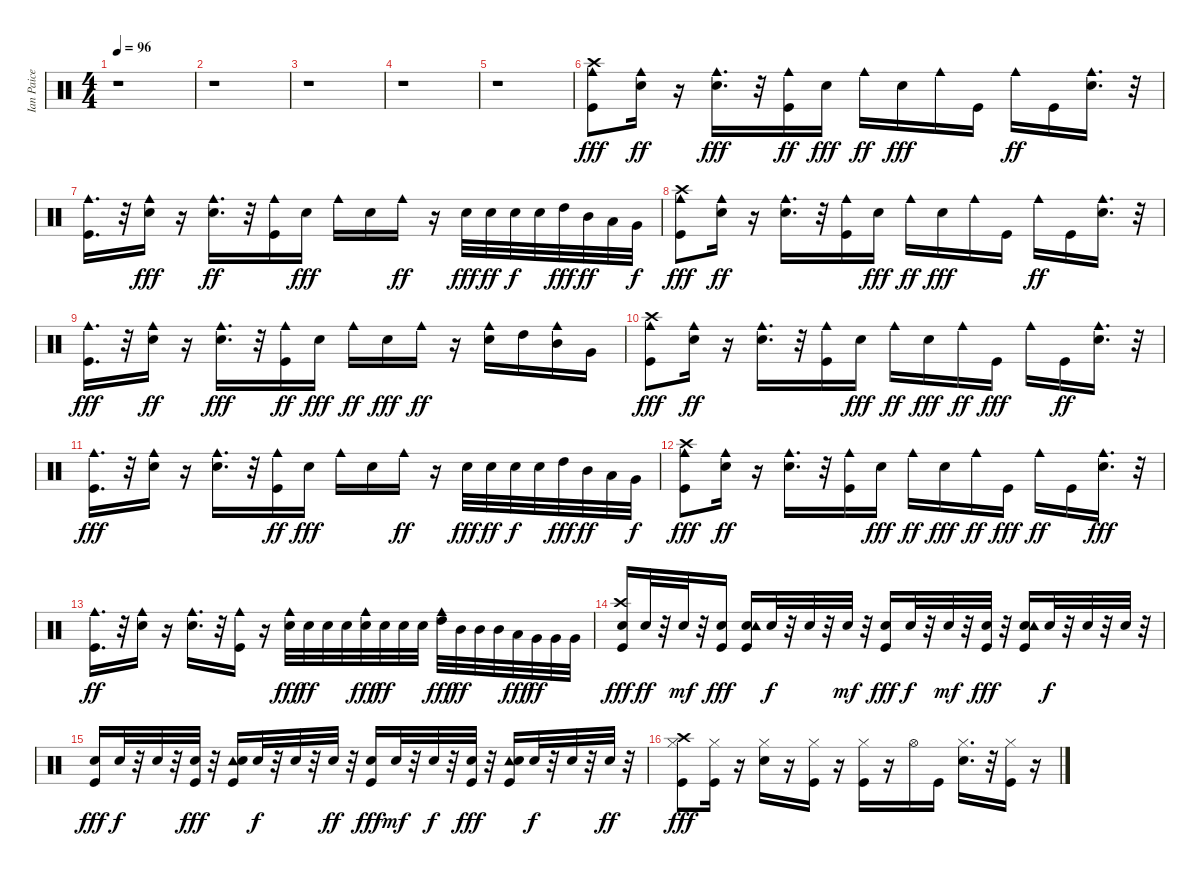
\track ("Ian Paice" "Ian Paice") {instrument percussion}
\staff {score}
\articulation defaults
\ts (4 4)
\tempo 96
\clef neutral
\ks c
r.1{dy fff} |
r.1 |
r.1 |
r.1 |
r.1 |
("Cowbell medium (hit)" "Kick (hit)" "Crash high (hit)").8 ("Snare (hit) 2" "Cowbell medium (hit)").16{dy ff} r.16 ("Cowbell medium (hit)" "Snare (hit) 2").16{d dy fff} r.32 ("Kick (hit)" "Cowbell medium (hit)").16{dy ff} "Snare (hit) 2".16{dy fff} "Cowbell medium (hit)".16{dy ff} "Snare (hit) 2".16{dy fff} "Cowbell medium (hit)".16 "Kick (hit)".16 "Cowbell medium (hit)".16{dy ff} "Kick (hit)".16 ("Snare (hit) 2" "Cowbell medium (hit)").16{d} r.32 |
("Kick (hit)" "Cowbell medium (hit)").16{d} r.32 ("Snare (hit) 2" "Cowbell medium (hit)").16{dy fff} r.16 ("Snare (hit) 2" "Cowbell medium (hit)").16{d dy ff} r.32 ("Kick (hit)" "Cowbell medium (hit)").16 "Snare (hit) 2".16{dy fff} "Cowbell medium (hit)".16 "Snare (hit) 2".16 "Cowbell medium (hit)".16{dy ff} r.16 "Snare (hit) 2".32{dy fff} "Snare (hit) 2".32{dy ff} "Snare (hit) 2".32{dy f} "Snare (hit) 2".32 "High Tom (hit)".32{dy fff} "Mid Tom (hit)".32{dy ff} "Low Tom (hit)".32 "Very Low Tom (hit)".32{dy f} |
("Cowbell medium (hit)" "Kick (hit)" "Crash high (hit)").8{dy fff} ("Snare (hit) 2" "Cowbell medium (hit)").16{dy ff} r.16 ("Snare (hit) 2" "Cowbell medium (hit)").16{d} r.32 ("Kick (hit)" "Cowbell medium (hit)").16 "Snare (hit) 2".16{dy fff} "Cowbell medium (hit)".16{dy ff} "Snare (hit) 2".16{dy fff} "Cowbell medium (hit)".16 "Kick (hit)".16 "Cowbell medium (hit)".16{dy ff} "Kick (hit)".16 ("Snare (hit) 2" "Cowbell medium (hit)").16{d} r.32 |
("Kick (hit)" "Cowbell medium (hit)").16{d dy fff} r.32 ("Snare (hit) 2" "Cowbell medium (hit)").16{dy ff} r.16 ("Snare (hit) 2" "Cowbell medium (hit)").16{d dy fff} r.32 ("Kick (hit)" "Cowbell medium (hit)").16{dy ff} "Snare (hit) 2".16{dy fff} "Cowbell medium (hit)".16{dy ff} "Snare (hit) 2".16{dy fff} "Cowbell medium (hit)".16{dy ff} r.16 ("Cowbell medium (hit)" "Snare (hit) 2").16 "High Tom (hit)".16 ("Cowbell medium (hit)" "Mid Tom (hit)").16 "Very Low Tom (hit)".16 |
("Cowbell medium (hit)" "Kick (hit)" "Crash high (hit)").8{dy fff} ("Snare (hit) 2" "Cowbell medium (hit)").16{dy ff} r.16 ("Snare (hit) 2" "Cowbell medium (hit)").16{d} r.32 ("Kick (hit)" "Cowbell medium (hit)").16 "Snare (hit) 2".16{dy fff} "Cowbell medium (hit)".16{dy ff} "Snare (hit) 2".16{dy fff} "Cowbell medium (hit)".16{dy ff} "Kick (hit)".16{dy fff} "Cowbell medium (hit)".16 "Kick (hit)".16{dy ff} ("Snare (hit) 2" "Cowbell medium (hit)").16{d} r.32 |
("Cowbell medium (hit)" "Kick (hit)").16{d dy fff} r.32 ("Snare (hit) 2" "Cowbell medium (hit)").16 r.16 ("Cowbell medium (hit)" "Snare (hit) 2").16{d} r.32 ("Kick (hit)" "Cowbell medium (hit)").16{dy ff} "Snare (hit) 2".16{dy fff} "Cowbell medium (hit)".16 "Snare (hit) 2".16 "Cowbell medium (hit)".16{dy ff} r.16 "Snare (hit) 2".32{dy fff} "Snare (hit) 2".32{dy ff} "Snare (hit) 2".32{dy f} "Snare (hit) 2".32 "High Tom (hit)".32{dy fff} "Mid Tom (hit)".32{dy ff} "Low Tom (hit)".32 "Very Low Tom (hit)".32{dy f} |
("Cowbell medium (hit)" "Kick (hit)" "Crash high (hit)").8{dy fff} ("Snare (hit) 2" "Cowbell medium (hit)").16{dy ff} r.16 ("Snare (hit) 2" "Cowbell medium (hit)").16{d} r.32 ("Kick (hit)" "Cowbell medium (hit)").16 "Snare (hit) 2".16{dy fff} "Cowbell medium (hit)".16{dy ff} "Snare (hit) 2".16{dy fff} "Cowbell medium (hit)".16{dy ff} "Kick (hit)".16{dy fff} "Cowbell medium (hit)".16{dy ff} "Kick (hit)".16 ("Snare (hit) 2" "Cowbell medium (hit)").16{d dy fff} r.32 |
("Kick (hit)" "Cowbell medium (hit)").16{d dy ff} r.32 ("Snare (hit) 2" "Cowbell medium (hit)").16 r.16 ("Snare (hit) 2" "Cowbell medium (hit)").16{d} r.32 ("Kick (hit)" "Cowbell medium (hit)").16 r.16 ("Cowbell medium (hit)" "Snare (hit) 2").32{dy fff} "Snare (hit) 2".32{dy ff} "Snare (hit) 2".32 "Snare (hit) 2".32 ("Cowbell medium (hit)" "Snare (hit) 2").32{dy fff} "Snare (hit) 2".32{dy ff} "Snare (hit) 2".32 "Snare (hit) 2".32 ("Cowbell medium (hit)" "High Tom (hit)").32{dy fff} "Mid Tom (hit)".32{dy ff} "Mid Tom (hit)".32 "Mid Tom (hit)".32 "Low Tom (hit)".32{dy fff} "Very Low Tom (hit)".32{dy ff} "Very Low Tom (hit)".32 "Very Low Tom (hit)".32 |
("Snare (hit) 2" "Crash high (hit)" "Kick (hit)").16{dy fff} "Snare (hit) 2".32{dy ff} r.32 "Snare (hit) 2".32{dy mf} r.32 ("Snare (hit) 2" "Kick (hit)").16{dy fff} ("Snare (hit) 2" "Kick (hit)" "Tambourine (hit)").16 "Snare (hit) 2".32{dy f} r.32 "Snare (hit) 2".32 r.32 "Snare (hit) 2".32{dy mf} r.32 ("Snare (hit) 2" "Kick (hit)").16{dy fff} "Snare (hit) 2".32{dy f} r.32 "Snare (hit) 2".32{dy mf} r.32 ("Snare (hit) 2" "Kick (hit)").32{dy fff} r.32 ("Snare (hit) 2" "Kick (hit)" "Tambourine (hit)").16 "Snare (hit) 2".32{dy f} r.32 "Snare (hit) 2".32 r.32 "Snare (hit) 2".32 r.32 |
("Snare (hit) 2" "Kick (hit)").16{dy fff} "Snare (hit) 2".32{dy f} r.32 "Snare (hit) 2".32 r.32 ("Snare (hit) 2" "Kick (hit)").32{dy fff} r.32 ("Tambourine (hit)" "Snare (hit) 2" "Kick (hit)").16 "Snare (hit) 2".32{dy f} r.32 "Snare (hit) 2".32 r.32 "Snare (hit) 2".32{dy ff} r.32 ("Snare (hit) 2" "Kick (hit)").16{dy fff} "Snare (hit) 2".32{dy mf} r.32 "Snare (hit) 2".32{dy f} r.32 ("Snare (hit) 2" "Kick (hit)").32{dy fff} r.32 ("Tambourine (hit)" "Snare (hit) 2" "Kick (hit)").16 "Snare (hit) 2".32{dy f} r.32 "Snare (hit) 2".32 r.32 "Snare (hit) 2".32{dy ff} r.32 |
("Kick (hit)" "Hi-Hat (closed)" "Crash high (hit)").8{dy fff} ("Hi-Hat (closed)" "Kick (hit)").16 r.16 ("Hi-Hat (closed)" "Snare (hit) 2").16 r.16 ("Hi-Hat (closed)" "Kick (hit)").16 r.16 ("Hi-Hat (closed)" "Kick (hit)").16 r.16 "Hi-Hat (open)".16 "Kick (hit)".16 ("Hi-Hat (closed)" "Snare (hit) 2").16{d} r.32 ("Hi-Hat (closed)" "Kick (hit)").16 r.16
